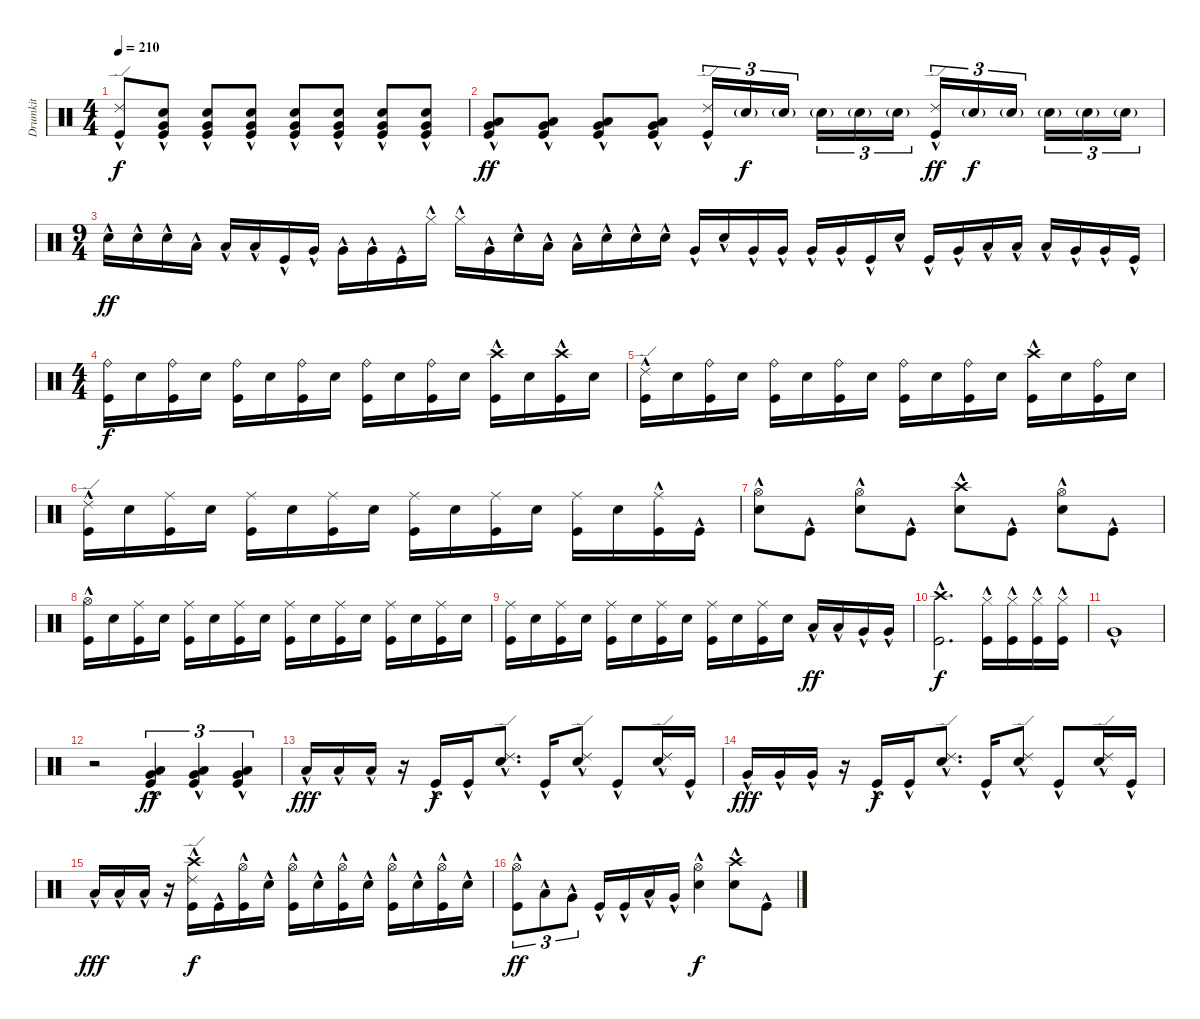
\track ("Drumkit" "Drumkit") {instrument percussion}
\staff {score}
\articulation defaults
\ts (4 4)
\tempo 210
\clef neutral
\ks c
("Kick (hit)"{hac} "Ride (edge) 2"{hac}).8{dy f} ("Snare (hit) 2"{hac} "Kick (hit)"{hac} "Very Low Tom (hit)"{hac}).8 ("Snare (hit) 2"{hac} "Kick (hit)"{hac} "Very Low Tom (hit)"{hac}).8 ("Snare (hit) 2"{hac} "Kick (hit)"{hac} "Very Low Tom (hit)"{hac}).8 ("Snare (hit) 2"{hac} "Kick (hit)"{hac} "Very Low Tom (hit)"{hac}).8 ("Snare (hit) 2"{hac} "Kick (hit)"{hac} "Very Low Tom (hit)"{hac}).8 ("Snare (hit) 2"{hac} "Kick (hit)"{hac} "Very Low Tom (hit)"{hac}).8 ("Snare (hit) 2"{hac} "Kick (hit)"{hac} "Very Low Tom (hit)"{hac}).8 |
("Kick (hit)"{hac} "Very Low Tom (hit)"{hac} "Low Tom (hit)"{hac}).8{dy ff} ("Kick (hit)"{hac} "Very Low Tom (hit)"{hac} "Low Tom (hit)"{hac}).8 ("Kick (hit)"{hac} "Very Low Tom (hit)"{hac} "Low Tom (hit)"{hac}).8 ("Kick (hit)"{hac} "Very Low Tom (hit)"{hac} "Low Tom (hit)"{hac}).8 ("Ride (edge) 2"{hac} "Kick (hit)"{hac}).16{tu (3 2)} "Snare (hit) 2"{g}.16{tu (3 2) dy f} "Snare (hit) 2"{g}.16{tu (3 2)} "Snare (hit) 2"{g}.16{tu (3 2)} "Snare (hit) 2"{g}.16{tu (3 2)} "Snare (hit) 2"{g}.16{tu (3 2)} ("Ride (edge) 2"{hac} "Kick (hit)"{hac}).16{tu (3 2) dy ff} "Snare (hit) 2"{g}.16{tu (3 2) dy f} "Snare (hit) 2"{g}.16{tu (3 2)} "Snare (hit) 2"{g}.16{tu (3 2)} "Snare (hit) 2"{g}.16{tu (3 2)} "Snare (hit) 2"{g}.16{tu (3 2)} |
\ts (9 4)
"Snare (hit) 2"{hac}.16{dy ff} "Snare (hit) 2"{hac}.16 "Snare (hit) 2"{hac}.16 "Low Tom (hit)"{hac}.16 "Low Tom (hit)"{hac}.16 "Low Tom (hit)"{hac}.16 "Kick (hit)"{hac}.16 "Very Low Tom (hit)"{hac}.16 "Very Low Tom (hit)"{hac}.16 "Very Low Tom (hit)"{hac}.16 "Kick (hit)"{hac}.16 "Hi-Hat (closed)"{hac}.16 "Hi-Hat (closed)"{hac}.16 "Very Low Tom (hit)"{hac}.16 "Snare (hit) 2"{hac}.16 "Low Tom (hit)"{hac}.16 "Low Tom (hit)"{hac}.16 "Snare (hit) 2"{hac}.16 "Snare (hit) 2"{hac}.16 "Snare (hit) 2"{hac}.16 "Very Low Tom (hit)"{hac}.16 "Snare (hit) 2"{hac}.16 "Very Low Tom (hit)"{hac}.16 "Very Low Tom (hit)"{hac}.16 "Very Low Tom (hit)"{hac}.16 "Very Low Tom (hit)"{hac}.16 "Kick (hit)"{hac}.16 "Snare (hit) 2"{hac}.16 "Kick (hit)"{hac}.16 "Very Low Tom (hit)"{hac}.16 "Low Tom (hit)"{hac}.16 "Low Tom (hit)"{hac}.16 "Low Tom (hit)"{hac}.16 "Very Low Tom (hit)"{hac}.16 "Very Low Tom (hit)"{hac}.16 "Kick (hit)"{hac}.16 |
\ts (4 4)
("Kick (hit)" "Ride (bell)").16{dy f} "Snare (hit) 2".16 ("Kick (hit)" "Ride (bell)").16 "Snare (hit) 2".16 ("Kick (hit)" "Ride (bell)").16 "Snare (hit) 2".16 ("Kick (hit)" "Ride (bell)").16 "Snare (hit) 2".16 ("Kick (hit)" "Ride (bell)").16 "Snare (hit) 2".16 ("Kick (hit)" "Ride (bell)").16 "Snare (hit) 2".16 ("Kick (hit)" "Crash high (hit)"{hac}).16 "Snare (hit) 2".16 ("Kick (hit)" "Crash high (hit)"{hac}).16 "Snare (hit) 2".16 |
("Kick (hit)" "Ride (edge) 2"{hac}).16 "Snare (hit) 2".16 ("Kick (hit)" "Ride (bell)").16 "Snare (hit) 2".16 ("Kick (hit)" "Ride (bell)").16 "Snare (hit) 2".16 ("Kick (hit)" "Ride (bell)").16 "Snare (hit) 2".16 ("Kick (hit)" "Ride (bell)").16 "Snare (hit) 2".16 ("Kick (hit)" "Ride (bell)").16 "Snare (hit) 2".16 ("Kick (hit)" "Crash high (hit)"{hac}).16 "Snare (hit) 2".16 ("Ride (bell)" "Kick (hit)").16 "Snare (hit) 2".16 |
("Kick (hit)" "Ride (edge) 2"{hac}).16 "Snare (hit) 2".16 ("Kick (hit)" "Ride (middle)").16 "Snare (hit) 2".16 ("Kick (hit)" "Ride (middle)").16 "Snare (hit) 2".16 ("Kick (hit)" "Ride (middle)").16 "Snare (hit) 2".16 ("Kick (hit)" "Ride (middle)").16 "Snare (hit) 2".16 ("Kick (hit)" "Ride (middle)").16 "Snare (hit) 2".16 ("Kick (hit)" "Ride (middle)").16 "Snare (hit) 2".16 ("Kick (hit)"{hac} "Ride (middle)"{hac}).16 "Kick (hit)"{hac}.16 |
("Snare (hit) 2"{hac} "Hi-Hat (open)"{hac}).8 "Kick (hit)"{hac}.8 ("Snare (hit) 2"{hac} "Hi-Hat (open)"{hac}).8 "Kick (hit)"{hac}.8 ("Snare (hit) 2"{hac} "Crash high (hit)"{hac}).8 "Kick (hit)"{hac}.8 ("Snare (hit) 2"{hac} "Hi-Hat (open)"{hac}).8 "Kick (hit)"{hac}.8 |
("Kick (hit)" "Hi-Hat (open)"{hac}).16 "Snare (hit) 2".16 ("Kick (hit)" "Ride (middle)").16 "Snare (hit) 2".16 ("Kick (hit)" "Ride (middle)").16 "Snare (hit) 2".16 ("Kick (hit)" "Ride (middle)").16 "Snare (hit) 2".16 ("Kick (hit)" "Ride (middle)").16 "Snare (hit) 2".16 ("Kick (hit)" "Ride (middle)").16 "Snare (hit) 2".16 ("Kick (hit)" "Ride (middle)").16 "Snare (hit) 2".16 ("Kick (hit)" "Ride (middle)").16 "Snare (hit) 2".16 |
("Kick (hit)" "Ride (middle)").16 "Snare (hit) 2".16 ("Kick (hit)" "Ride (middle)").16 "Snare (hit) 2".16 ("Kick (hit)" "Ride (middle)").16 "Snare (hit) 2".16 ("Kick (hit)" "Ride (middle)").16 "Snare (hit) 2".16 ("Kick (hit)" "Ride (middle)").16 "Snare (hit) 2".16 ("Kick (hit)" "Ride (middle)").16 "Snare (hit) 2".16 "Low Tom (hit)"{hac}.16{dy ff} "Low Tom (hit)"{hac}.16 "Very Low Tom (hit)"{hac}.16 "Very Low Tom (hit)"{hac}.16 |
("Kick (hit)"{hac} "Crash high (hit)"{hac}).2{d dy f} ("Kick (hit)"{hac} "Hi-Hat (closed)"{hac}).16 ("Kick (hit)"{hac} "Hi-Hat (closed)"{hac}).16 ("Kick (hit)"{hac} "Hi-Hat (closed)"{hac}).16 ("Kick (hit)"{hac} "Hi-Hat (closed)"{hac}).16 |
"Very Low Tom (hit)"{hac}.1 |
r.2 ("Kick (hit)"{hac} "Very Low Tom (hit)"{hac} "Low Tom (hit)"{hac}).4{tu (3 2) dy ff} ("Kick (hit)"{hac} "Very Low Tom (hit)"{hac} "Low Tom (hit)"{hac}).4{tu (3 2)} ("Kick (hit)"{hac} "Very Low Tom (hit)"{hac} "Low Tom (hit)"{hac}).4{tu (3 2)} |
"Low Tom (hit)"{hac}.16{dy fff} "Low Tom (hit)"{hac}.16 "Low Tom (hit)"{hac}.16 r.16 "Kick (hit)"{hac}.16{dy f} "Kick (hit)"{hac}.16 ("Snare (hit) 2"{hac} "Ride (edge) 2"{hac}).8{d} "Kick (hit)"{hac}.16 ("Snare (hit) 2"{hac} "Ride (edge) 2"{hac}).8 "Kick (hit)"{hac}.8 ("Snare (hit) 2"{hac} "Ride (edge) 2"{hac}).16 "Kick (hit)"{hac}.16 |
"Very Low Tom (hit)"{hac}.16{dy fff} "Very Low Tom (hit)"{hac}.16 "Very Low Tom (hit)"{hac}.16 r.16 "Kick (hit)"{hac}.16{dy f} "Kick (hit)"{hac}.16 ("Snare (hit) 2"{hac} "Ride (edge) 2"{hac}).8{d} "Kick (hit)"{hac}.16 ("Snare (hit) 2"{hac} "Ride (edge) 2"{hac}).8 "Kick (hit)"{hac}.8 ("Snare (hit) 2"{hac} "Ride (edge) 2"{hac}).16 "Kick (hit)"{hac}.16 |
"Low Tom (hit)"{hac}.16{dy fff} "Low Tom (hit)"{hac}.16 "Low Tom (hit)"{hac}.16 r.16 ("Kick (hit)"{hac} "Ride (edge) 2"{hac} "Crash high (hit)"{hac}).16{dy f} "Kick (hit)"{hac}.16 ("Kick (hit)"{hac} "Hi-Hat (open)").16 "Snare (hit) 2"{hac}.16 ("Kick (hit)"{hac} "Hi-Hat (open)").16 "Snare (hit) 2"{hac}.16 ("Kick (hit)"{hac} "Hi-Hat (open)").16 "Snare (hit) 2"{hac}.16 ("Kick (hit)"{hac} "Hi-Hat (open)").16 "Snare (hit) 2"{hac}.16 ("Kick (hit)"{hac} "Hi-Hat (open)").16 "Snare (hit) 2"{hac}.16 |
("Kick (hit)"{hac} "Hi-Hat (open)"{hac}).8{tu (3 2) dy ff} "Low Tom (hit)"{hac}.8{tu (3 2)} "Very Low Tom (hit)"{hac}.8{tu (3 2)} "Kick (hit)"{hac}.16 "Kick (hit)"{hac}.16 "Low Tom (hit)"{hac}.16 "Very Low Tom (hit)"{hac}.16 ("Snare (hit) 2"{hac} "Hi-Hat (open)"{hac}).4{dy f} ("Snare (hit) 2"{hac} "Crash high (hit)"{hac}).8 "Kick (hit)"{hac}.8
